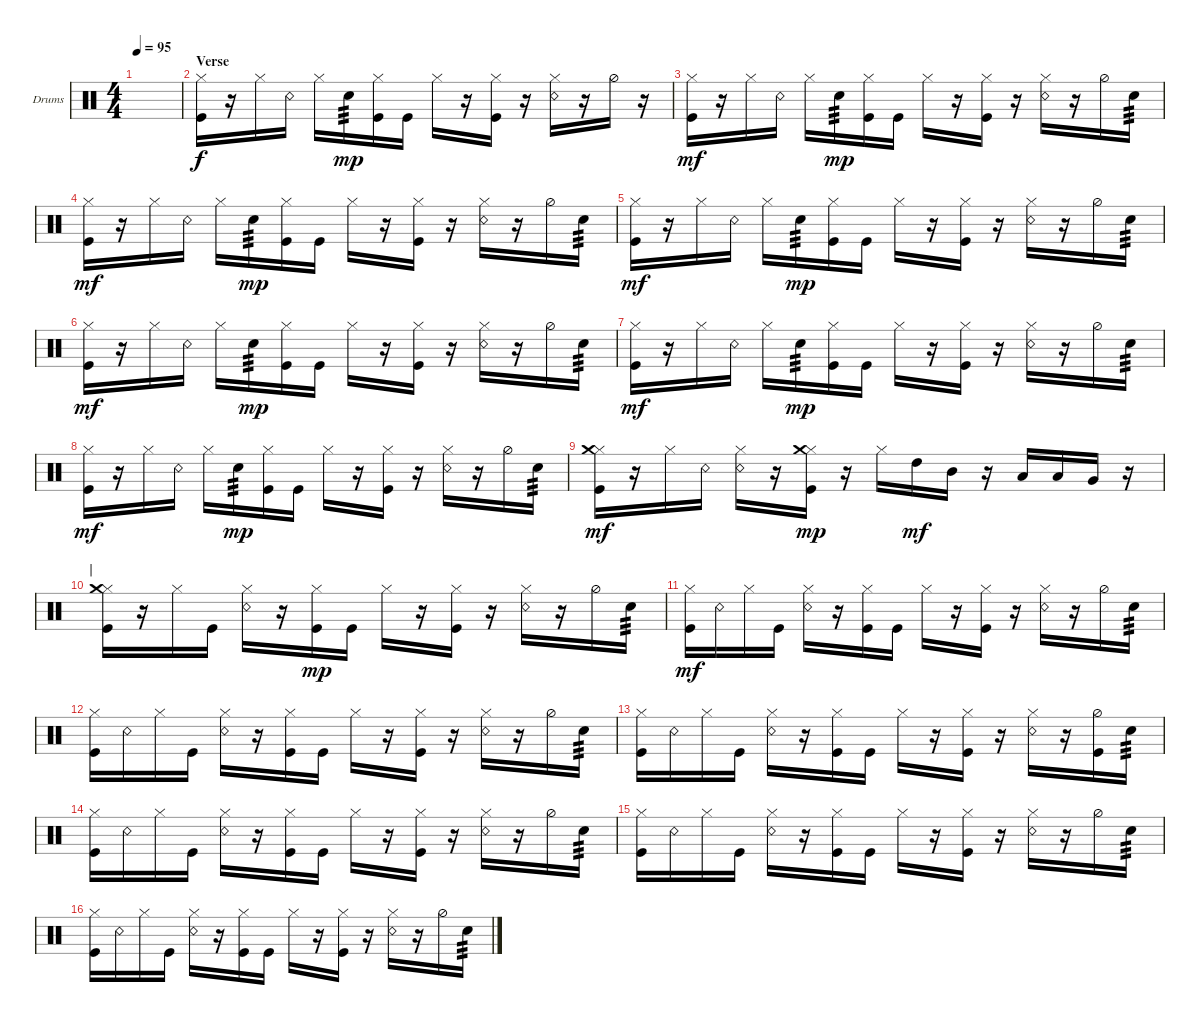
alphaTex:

\defaultSystemsLayout 4
\bracketExtendMode groupsimilarinstruments
\firstSystemTrackNameOrientation horizontal
\otherSystemsTrackNameOrientation horizontal
\track ("Drum [Tomoya]" "Drums") {instrument percussion}
\staff {score}
\articulation defaults
\ts (4 4)
\tempo 95
\clef neutral
\ks c
|
\section ("" "Verse")
("Kick (hit)" "Hi-Hat (closed)").16 r.16 "Hi-Hat (closed)".16 "Snare (rim shot)".16 "Hi-Hat (closed)".16 "Snare (hit) 2".16{tp 3 dy mp} ("Hi-Hat (closed)" "Kick (hit)").16 "Kick (hit)".16 "Hi-Hat (closed)".16 r.16 ("Kick (hit)" "Hi-Hat (closed)").16 r.16 ("Snare (rim shot)" "Hi-Hat (closed)").16 r.16 "Hi-Hat (half)".16 r.16 |
("Kick (hit)" "Hi-Hat (closed)").16{dy mf} r.16 "Hi-Hat (closed)".16 "Snare (rim shot)".16 "Hi-Hat (closed)".16 "Snare (hit) 2".16{tp 3 dy mp} ("Hi-Hat (closed)" "Kick (hit)").16 "Kick (hit)".16 "Hi-Hat (closed)".16 r.16 ("Kick (hit)" "Hi-Hat (closed)").16 r.16 ("Snare (rim shot)" "Hi-Hat (closed)").16 r.16 "Hi-Hat (half)".16 "Snare (hit) 2".16{tp 3} |
("Kick (hit)" "Hi-Hat (closed)").16{dy mf} r.16 "Hi-Hat (closed)".16 "Snare (rim shot)".16 "Hi-Hat (closed)".16 "Snare (hit) 2".16{tp 3 dy mp} ("Hi-Hat (closed)" "Kick (hit)").16 "Kick (hit)".16 "Hi-Hat (closed)".16 r.16 ("Kick (hit)" "Hi-Hat (closed)").16 r.16 ("Snare (rim shot)" "Hi-Hat (closed)").16 r.16 "Hi-Hat (half)".16 "Snare (hit) 2".16{tp 3} |
("Kick (hit)" "Hi-Hat (closed)").16{dy mf} r.16 "Hi-Hat (closed)".16 "Snare (rim shot)".16 "Hi-Hat (closed)".16 "Snare (hit) 2".16{tp 3 dy mp} ("Hi-Hat (closed)" "Kick (hit)").16 "Kick (hit)".16 "Hi-Hat (closed)".16 r.16 ("Kick (hit)" "Hi-Hat (closed)").16 r.16 ("Snare (rim shot)" "Hi-Hat (closed)").16 r.16 "Hi-Hat (half)".16 "Snare (hit) 2".16{tp 3} |
("Kick (hit)" "Hi-Hat (closed)").16{dy mf} r.16 "Hi-Hat (closed)".16 "Snare (rim shot)".16 "Hi-Hat (closed)".16 "Snare (hit) 2".16{tp 3 dy mp} ("Hi-Hat (closed)" "Kick (hit)").16 "Kick (hit)".16 "Hi-Hat (closed)".16 r.16 ("Kick (hit)" "Hi-Hat (closed)").16 r.16 ("Snare (rim shot)" "Hi-Hat (closed)").16 r.16 "Hi-Hat (half)".16 "Snare (hit) 2".16{tp 3} |
("Kick (hit)" "Hi-Hat (closed)").16{dy mf} r.16 "Hi-Hat (closed)".16 "Snare (rim shot)".16 "Hi-Hat (closed)".16 "Snare (hit) 2".16{tp 3 dy mp} ("Hi-Hat (closed)" "Kick (hit)").16 "Kick (hit)".16 "Hi-Hat (closed)".16 r.16 ("Kick (hit)" "Hi-Hat (closed)").16 r.16 ("Snare (rim shot)" "Hi-Hat (closed)").16 r.16 "Hi-Hat (half)".16 "Snare (hit) 2".16{tp 3} |
("Kick (hit)" "Hi-Hat (closed)").16{dy mf} r.16 "Hi-Hat (closed)".16 "Snare (rim shot)".16 "Hi-Hat (closed)".16 "Snare (hit) 2".16{tp 3 dy mp} ("Hi-Hat (closed)" "Kick (hit)").16 "Kick (hit)".16 "Hi-Hat (closed)".16 r.16 ("Kick (hit)" "Hi-Hat (closed)").16 r.16 ("Snare (rim shot)" "Hi-Hat (closed)").16 r.16 "Hi-Hat (half)".16 "Snare (hit) 2".16{tp 3} |
("Kick (hit)" "Hi-Hat (closed)" "Crash medium (hit)").16{dy mf} r.16 "Hi-Hat (closed)".16 "Snare (rim shot)".16 ("Hi-Hat (closed)" "Snare (rim shot)").16 r.16 ("Hi-Hat (closed)" "Kick (hit)" "Crash medium (hit)").16{dy mp} r.16 "Hi-Hat (closed)".16 "High Tom (hit)".16{dy mf} "Mid Tom (hit)".16 r.16 "Low Tom (hit)".16 "Low Tom (hit)".16 "Very Low Tom (hit)".16 r.16 |
\section ("" "|")
("Kick (hit)" "Hi-Hat (closed)" "Crash medium (hit)").16 r.16 "Hi-Hat (closed)".16 "Kick (hit)".16 ("Hi-Hat (closed)" "Snare (rim shot)").16 r.16 ("Hi-Hat (closed)" "Kick (hit)").16{dy mp} "Kick (hit)".16 "Hi-Hat (closed)".16 r.16 ("Kick (hit)" "Hi-Hat (closed)").16 r.16 ("Snare (rim shot)" "Hi-Hat (closed)").16 r.16 "Hi-Hat (half)".16 "Snare (hit) 2".16{tp 3} |
("Kick (hit)" "Hi-Hat (closed)").16{dy mf} "Snare (rim shot)".16 "Hi-Hat (closed)".16 "Kick (hit)".16 ("Hi-Hat (closed)" "Snare (rim shot)").16 r.16 ("Hi-Hat (closed)" "Kick (hit)").16 "Kick (hit)".16 "Hi-Hat (closed)".16 r.16 ("Kick (hit)" "Hi-Hat (closed)").16 r.16 ("Snare (rim shot)" "Hi-Hat (closed)").16 r.16 "Hi-Hat (half)".16 "Snare (hit) 2".16{tp 3} |
("Kick (hit)" "Hi-Hat (closed)").16 "Snare (rim shot)".16 "Hi-Hat (closed)".16 "Kick (hit)".16 ("Hi-Hat (closed)" "Snare (rim shot)").16 r.16 ("Hi-Hat (closed)" "Kick (hit)").16 "Kick (hit)".16 "Hi-Hat (closed)".16 r.16 ("Kick (hit)" "Hi-Hat (closed)").16 r.16 ("Snare (rim shot)" "Hi-Hat (closed)").16 r.16 "Hi-Hat (half)".16 "Snare (hit) 2".16{tp 3} |
("Kick (hit)" "Hi-Hat (closed)").16 "Snare (rim shot)".16 "Hi-Hat (closed)".16 "Kick (hit)".16 ("Hi-Hat (closed)" "Snare (rim shot)").16 r.16 ("Hi-Hat (closed)" "Kick (hit)").16 "Kick (hit)".16 "Hi-Hat (closed)".16 r.16 ("Kick (hit)" "Hi-Hat (closed)").16 r.16 ("Snare (rim shot)" "Hi-Hat (closed)").16 r.16 ("Hi-Hat (half)" "Kick (hit)").16 "Snare (hit) 2".16{tp 3} |
("Kick (hit)" "Hi-Hat (closed)").16 "Snare (rim shot)".16 "Hi-Hat (closed)".16 "Kick (hit)".16 ("Hi-Hat (closed)" "Snare (rim shot)").16 r.16 ("Hi-Hat (closed)" "Kick (hit)").16 "Kick (hit)".16 "Hi-Hat (closed)".16 r.16 ("Kick (hit)" "Hi-Hat (closed)").16 r.16 ("Snare (rim shot)" "Hi-Hat (closed)").16 r.16 "Hi-Hat (half)".16 "Snare (hit) 2".16{tp 3} |
("Kick (hit)" "Hi-Hat (closed)").16 "Snare (rim shot)".16 "Hi-Hat (closed)".16 "Kick (hit)".16 ("Hi-Hat (closed)" "Snare (rim shot)").16 r.16 ("Hi-Hat (closed)" "Kick (hit)").16 "Kick (hit)".16 "Hi-Hat (closed)".16 r.16 ("Kick (hit)" "Hi-Hat (closed)").16 r.16 ("Snare (rim shot)" "Hi-Hat (closed)").16 r.16 "Hi-Hat (half)".16 "Snare (hit) 2".16{tp 3} |
("Kick (hit)" "Hi-Hat (closed)").16 "Snare (rim shot)".16 "Hi-Hat (closed)".16 "Kick (hit)".16 ("Hi-Hat (closed)" "Snare (rim shot)").16 r.16 ("Hi-Hat (closed)" "Kick (hit)").16 "Kick (hit)".16 "Hi-Hat (closed)".16 r.16 ("Kick (hit)" "Hi-Hat (closed)").16 r.16 ("Snare (rim shot)" "Hi-Hat (closed)").16 r.16 "Hi-Hat (half)".16 "Snare (hit) 2".16{tp 3}
